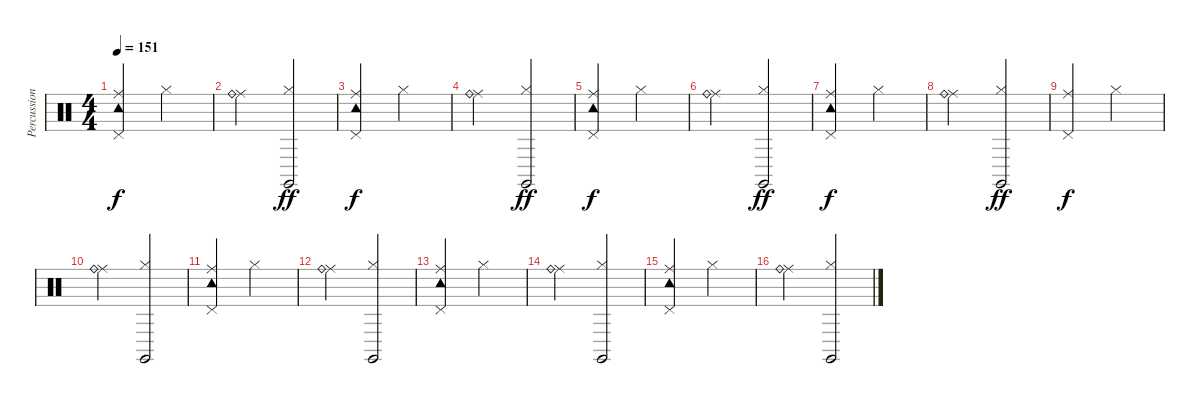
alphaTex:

\track ("Percussion" "Percussion") {instrument percussion}
\staff {score}
\articulation defaults
\ts (4 4)
\tempo 151
\clef neutral
\ks c
("Ride (middle)" "Tambourine (hit)" "Pedal Hi-Hat (hit)").2{dy f} "Hi-Hat (closed)".2 |
("Ride (middle)" "Ride (bell)").2 ("Hi-Hat (closed)" "Claves (hit)").2{dy ff} |
("Ride (middle)" "Tambourine (hit)" "Pedal Hi-Hat (hit)").2{dy f} "Hi-Hat (closed)".2 |
("Ride (middle)" "Ride (bell)").2 ("Hi-Hat (closed)" "Claves (hit)").2{dy ff} |
("Ride (middle)" "Tambourine (hit)" "Pedal Hi-Hat (hit)").2{dy f} "Hi-Hat (closed)".2 |
("Ride (middle)" "Ride (bell)").2 ("Hi-Hat (closed)" "Claves (hit)").2{dy ff} |
("Ride (middle)" "Tambourine (hit)" "Pedal Hi-Hat (hit)").2{dy f} "Hi-Hat (closed)".2 |
("Ride (middle)" "Ride (bell)").2 ("Hi-Hat (closed)" "Claves (hit)").2{dy ff} |
("Ride (middle)" "Pedal Hi-Hat (hit)").2{dy f} "Hi-Hat (closed)".2 |
("Ride (middle)" "Ride (bell)").2 ("Hi-Hat (closed)" "Claves (hit)").2 |
("Ride (middle)" "Tambourine (hit)" "Pedal Hi-Hat (hit)").2 "Hi-Hat (closed)".2 |
("Ride (middle)" "Ride (bell)").2 ("Hi-Hat (closed)" "Claves (hit)").2 |
("Ride (middle)" "Tambourine (hit)" "Pedal Hi-Hat (hit)").2 "Hi-Hat (closed)".2 |
("Ride (middle)" "Ride (bell)").2 ("Hi-Hat (closed)" "Claves (hit)").2 |
("Ride (middle)" "Tambourine (hit)" "Pedal Hi-Hat (hit)").2 "Hi-Hat (closed)".2 |
("Ride (middle)" "Ride (bell)").2 ("Hi-Hat (closed)" "Claves (hit)").2
